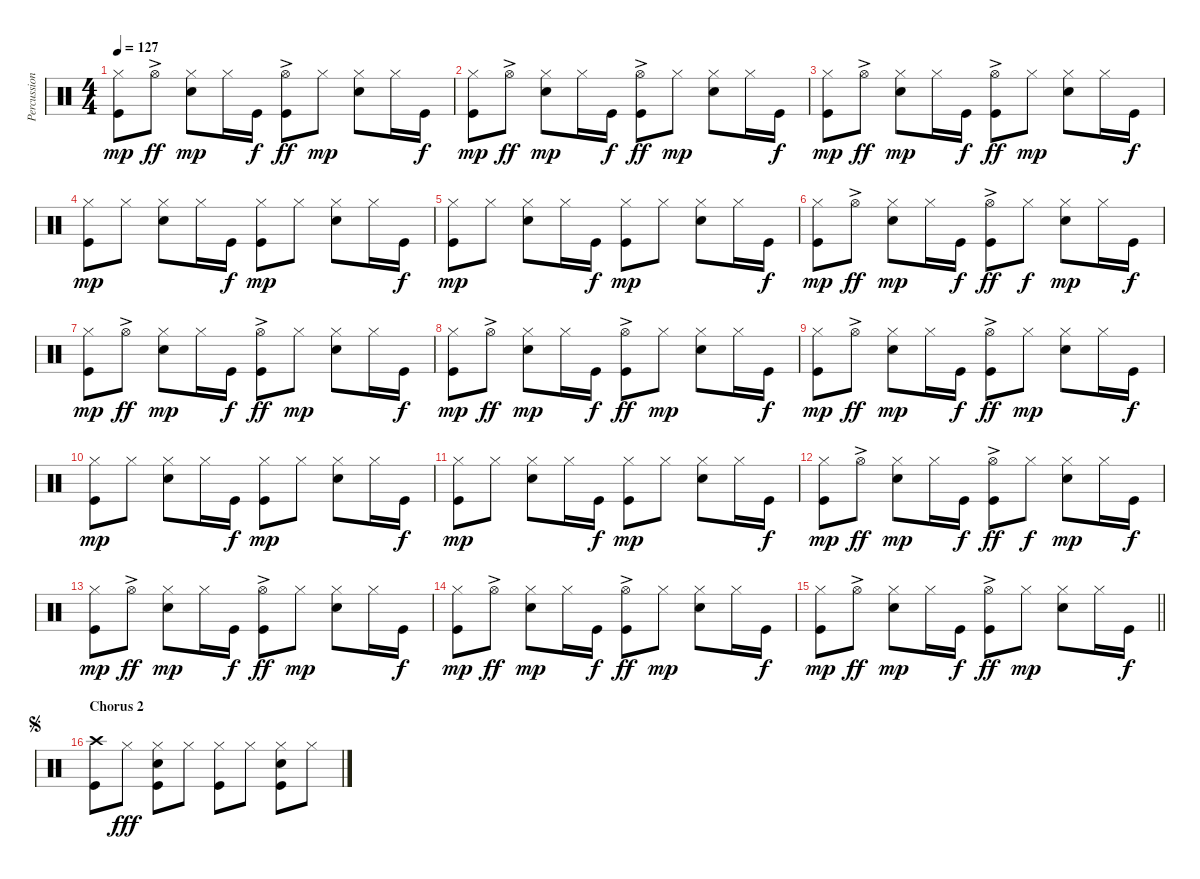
\track ("Percussion" "Percussion") {instrument percussion}
\staff {score}
\articulation defaults
\ts (4 4)
\tempo 127
\clef neutral
\ks c
("Hi-Hat (closed)" "Kick (hit)").8{dy mp} "Hi-Hat (open)"{ac}.8{dy ff} ("Hi-Hat (closed)" "Snare (hit) 2").8{dy mp} "Hi-Hat (closed)".16 "Kick (hit)".16{dy f} ("Hi-Hat (open)"{ac} "Kick (hit)").8{dy ff} "Hi-Hat (closed)".8{dy mp} ("Hi-Hat (closed)" "Snare (hit) 2").8 "Hi-Hat (closed)".16 "Kick (hit)".16{dy f} |
("Hi-Hat (closed)" "Kick (hit)").8{dy mp} "Hi-Hat (open)"{ac}.8{dy ff} ("Hi-Hat (closed)" "Snare (hit) 2").8{dy mp} "Hi-Hat (closed)".16 "Kick (hit)".16{dy f} ("Hi-Hat (open)"{ac} "Kick (hit)").8{dy ff} "Hi-Hat (closed)".8{dy mp} ("Hi-Hat (closed)" "Snare (hit) 2").8 "Hi-Hat (closed)".16 "Kick (hit)".16{dy f} |
("Hi-Hat (closed)" "Kick (hit)").8{dy mp} "Hi-Hat (open)"{ac}.8{dy ff} ("Hi-Hat (closed)" "Snare (hit) 2").8{dy mp} "Hi-Hat (closed)".16 "Kick (hit)".16{dy f} ("Hi-Hat (open)"{ac} "Kick (hit)").8{dy ff} "Hi-Hat (closed)".8{dy mp} ("Hi-Hat (closed)" "Snare (hit) 2").8 "Hi-Hat (closed)".16 "Kick (hit)".16{dy f} |
("Hi-Hat (closed)" "Kick (hit)").8{dy mp} "Hi-Hat (closed)".8 ("Hi-Hat (closed)" "Snare (hit) 2").8 "Hi-Hat (closed)".16 "Kick (hit)".16{dy f} ("Hi-Hat (closed)" "Kick (hit)").8{dy mp} "Hi-Hat (closed)".8 ("Hi-Hat (closed)" "Snare (hit) 2").8 "Hi-Hat (closed)".16 "Kick (hit)".16{dy f} |
("Hi-Hat (closed)" "Kick (hit)").8{dy mp} "Hi-Hat (closed)".8 ("Hi-Hat (closed)" "Snare (hit) 2").8 "Hi-Hat (closed)".16 "Kick (hit)".16{dy f} ("Hi-Hat (closed)" "Kick (hit)").8{dy mp} "Hi-Hat (closed)".8 ("Hi-Hat (closed)" "Snare (hit) 2").8 "Hi-Hat (closed)".16 "Kick (hit)".16{dy f} |
("Hi-Hat (closed)" "Kick (hit)").8{dy mp} "Hi-Hat (open)"{ac}.8{dy ff} ("Hi-Hat (closed)" "Snare (hit) 2").8{dy mp} "Hi-Hat (closed)".16 "Kick (hit)".16{dy f} ("Hi-Hat (open)"{ac} "Kick (hit)").8{dy ff} "Hi-Hat (closed)".8{dy f} ("Hi-Hat (closed)" "Snare (hit) 2").8{dy mp} "Hi-Hat (closed)".16 "Kick (hit)".16{dy f} |
("Hi-Hat (closed)" "Kick (hit)").8{dy mp} "Hi-Hat (open)"{ac}.8{dy ff} ("Hi-Hat (closed)" "Snare (hit) 2").8{dy mp} "Hi-Hat (closed)".16 "Kick (hit)".16{dy f} ("Hi-Hat (open)"{ac} "Kick (hit)").8{dy ff} "Hi-Hat (closed)".8{dy mp} ("Hi-Hat (closed)" "Snare (hit) 2").8 "Hi-Hat (closed)".16 "Kick (hit)".16{dy f} |
("Hi-Hat (closed)" "Kick (hit)").8{dy mp} "Hi-Hat (open)"{ac}.8{dy ff} ("Hi-Hat (closed)" "Snare (hit) 2").8{dy mp} "Hi-Hat (closed)".16 "Kick (hit)".16{dy f} ("Hi-Hat (open)"{ac} "Kick (hit)").8{dy ff} "Hi-Hat (closed)".8{dy mp} ("Hi-Hat (closed)" "Snare (hit) 2").8 "Hi-Hat (closed)".16 "Kick (hit)".16{dy f} |
("Hi-Hat (closed)" "Kick (hit)").8{dy mp} "Hi-Hat (open)"{ac}.8{dy ff} ("Hi-Hat (closed)" "Snare (hit) 2").8{dy mp} "Hi-Hat (closed)".16 "Kick (hit)".16{dy f} ("Hi-Hat (open)"{ac} "Kick (hit)").8{dy ff} "Hi-Hat (closed)".8{dy mp} ("Hi-Hat (closed)" "Snare (hit) 2").8 "Hi-Hat (closed)".16 "Kick (hit)".16{dy f} |
("Hi-Hat (closed)" "Kick (hit)").8{dy mp} "Hi-Hat (closed)".8 ("Hi-Hat (closed)" "Snare (hit) 2").8 "Hi-Hat (closed)".16 "Kick (hit)".16{dy f} ("Hi-Hat (closed)" "Kick (hit)").8{dy mp} "Hi-Hat (closed)".8 ("Hi-Hat (closed)" "Snare (hit) 2").8 "Hi-Hat (closed)".16 "Kick (hit)".16{dy f} |
("Hi-Hat (closed)" "Kick (hit)").8{dy mp} "Hi-Hat (closed)".8 ("Hi-Hat (closed)" "Snare (hit) 2").8 "Hi-Hat (closed)".16 "Kick (hit)".16{dy f} ("Hi-Hat (closed)" "Kick (hit)").8{dy mp} "Hi-Hat (closed)".8 ("Hi-Hat (closed)" "Snare (hit) 2").8 "Hi-Hat (closed)".16 "Kick (hit)".16{dy f} |
("Hi-Hat (closed)" "Kick (hit)").8{dy mp} "Hi-Hat (open)"{ac}.8{dy ff} ("Hi-Hat (closed)" "Snare (hit) 2").8{dy mp} "Hi-Hat (closed)".16 "Kick (hit)".16{dy f} ("Hi-Hat (open)"{ac} "Kick (hit)").8{dy ff} "Hi-Hat (closed)".8{dy f} ("Hi-Hat (closed)" "Snare (hit) 2").8{dy mp} "Hi-Hat (closed)".16 "Kick (hit)".16{dy f} |
("Hi-Hat (closed)" "Kick (hit)").8{dy mp} "Hi-Hat (open)"{ac}.8{dy ff} ("Hi-Hat (closed)" "Snare (hit) 2").8{dy mp} "Hi-Hat (closed)".16 "Kick (hit)".16{dy f} ("Hi-Hat (open)"{ac} "Kick (hit)").8{dy ff} "Hi-Hat (closed)".8{dy mp} ("Hi-Hat (closed)" "Snare (hit) 2").8 "Hi-Hat (closed)".16 "Kick (hit)".16{dy f} |
("Hi-Hat (closed)" "Kick (hit)").8{dy mp} "Hi-Hat (open)"{ac}.8{dy ff} ("Hi-Hat (closed)" "Snare (hit) 2").8{dy mp} "Hi-Hat (closed)".16 "Kick (hit)".16{dy f} ("Hi-Hat (open)"{ac} "Kick (hit)").8{dy ff} "Hi-Hat (closed)".8{dy mp} ("Hi-Hat (closed)" "Snare (hit) 2").8 "Hi-Hat (closed)".16 "Kick (hit)".16{dy f} |
\barLineRight lightlight
("Hi-Hat (closed)" "Kick (hit)").8{dy mp} "Hi-Hat (open)"{ac}.8{dy ff} ("Hi-Hat (closed)" "Snare (hit) 2").8{dy mp} "Hi-Hat (closed)".16 "Kick (hit)".16{dy f} ("Hi-Hat (open)"{ac} "Kick (hit)").8{dy ff} "Hi-Hat (closed)".8{dy mp} ("Hi-Hat (closed)" "Snare (hit) 2").8 "Hi-Hat (closed)".16 "Kick (hit)".16{dy f} |
\section ("" "Chorus 2")
\jump segno
("Crash high (hit)" "Kick (hit)").8 "Hi-Hat (closed)".8{dy fff} ("Hi-Hat (closed)" "Snare (hit) 2" "Kick (hit)").8 "Hi-Hat (closed)".8 ("Hi-Hat (closed)" "Kick (hit)").8 "Hi-Hat (closed)".8 ("Hi-Hat (closed)" "Snare (hit) 2" "Kick (hit)").8 "Hi-Hat (closed)".8
